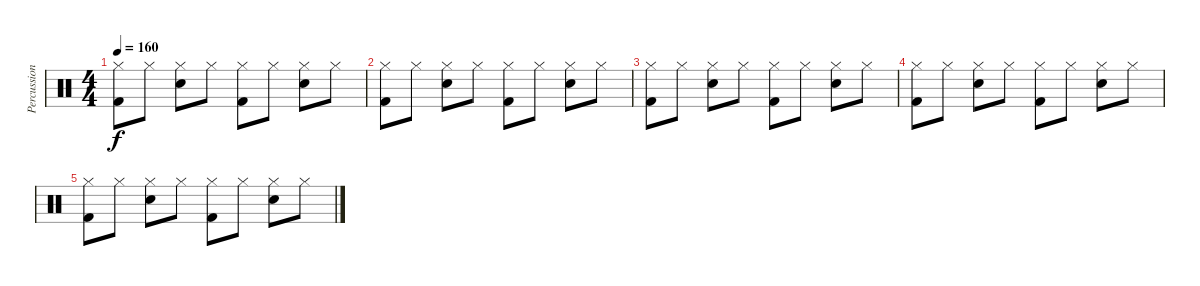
\track ("Percussions" "Percussion") {instrument percussion}
\staff {score}
\articulation defaults
\ts (4 4)
\tempo 160
\clef neutral
\ks c
("Kick (hit) 2" "Hi-Hat (closed)").8{dy f} "Hi-Hat (closed)".8 ("Electric Snare (hit)" "Hi-Hat (closed)").8 "Hi-Hat (closed)".8 ("Kick (hit) 2" "Hi-Hat (closed)").8 "Hi-Hat (closed)".8 ("Electric Snare (hit)" "Hi-Hat (closed)").8 "Hi-Hat (closed)".8 |
("Kick (hit) 2" "Hi-Hat (closed)").8 "Hi-Hat (closed)".8 ("Electric Snare (hit)" "Hi-Hat (closed)").8 "Hi-Hat (closed)".8 ("Kick (hit) 2" "Hi-Hat (closed)").8 "Hi-Hat (closed)".8 ("Electric Snare (hit)" "Hi-Hat (closed)").8 "Hi-Hat (closed)".8 |
("Kick (hit) 2" "Hi-Hat (closed)").8 "Hi-Hat (closed)".8 ("Electric Snare (hit)" "Hi-Hat (closed)").8 "Hi-Hat (closed)".8 ("Kick (hit) 2" "Hi-Hat (closed)").8 "Hi-Hat (closed)".8 ("Electric Snare (hit)" "Hi-Hat (closed)").8 "Hi-Hat (closed)".8 |
("Kick (hit) 2" "Hi-Hat (closed)").8 "Hi-Hat (closed)".8 ("Electric Snare (hit)" "Hi-Hat (closed)").8 "Hi-Hat (closed)".8 ("Kick (hit) 2" "Hi-Hat (closed)").8 "Hi-Hat (closed)".8 ("Electric Snare (hit)" "Hi-Hat (closed)").8 "Hi-Hat (closed)".8 |
("Kick (hit) 2" "Hi-Hat (closed)").8 "Hi-Hat (closed)".8 ("Electric Snare (hit)" "Hi-Hat (closed)").8 "Hi-Hat (closed)".8 ("Kick (hit) 2" "Hi-Hat (closed)").8 "Hi-Hat (closed)".8 ("Electric Snare (hit)" "Hi-Hat (closed)").8 "Hi-Hat (closed)".8
